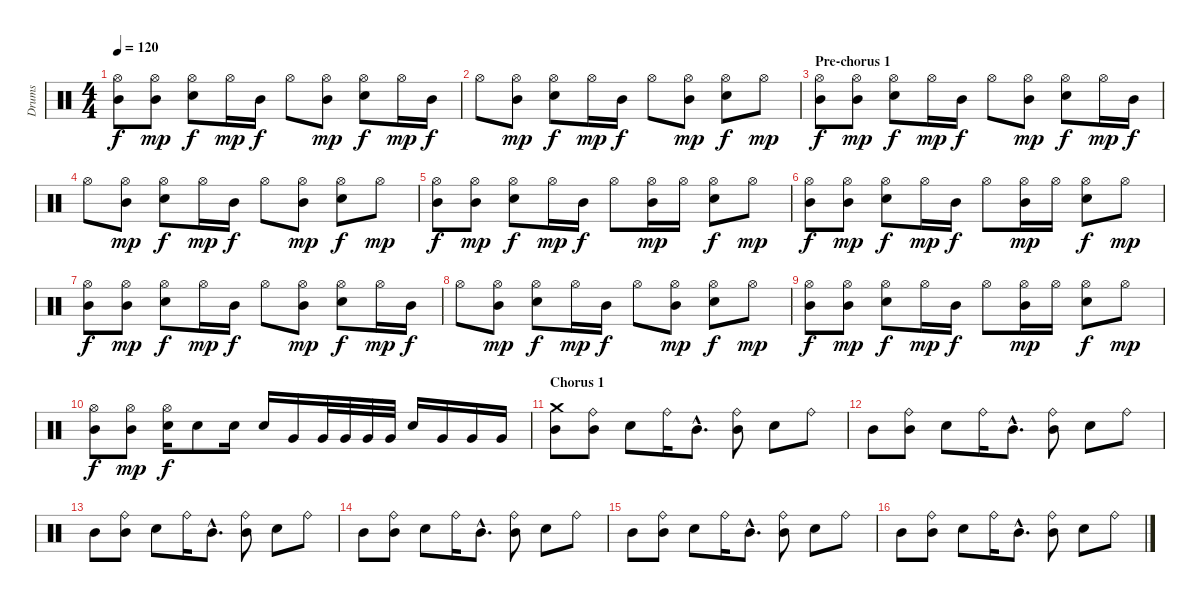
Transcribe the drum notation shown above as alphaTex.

\track ("Drums" "Drums") {instrument percussion}
\staff {score}
\articulation defaults
\ts (4 4)
\tempo 120
\clef neutral
\ks c
("Hi-Hat (open)" "Mid Tom (hit)").8{dy f} ("Hi-Hat (open)" "Mid Tom (hit)").8{dy mp} ("Hi-Hat (open)" "Electric Snare (hit)").8{dy f} "Hi-Hat (open)".16{dy mp} "Mid Tom (hit)".16{dy f} "Hi-Hat (open)".8 ("Hi-Hat (open)" "Mid Tom (hit)").8{dy mp} ("Hi-Hat (open)" "Electric Snare (hit)").8{dy f} "Hi-Hat (open)".16{dy mp} "Mid Tom (hit)".16{dy f} |
"Hi-Hat (open)".8 ("Hi-Hat (open)" "Mid Tom (hit)").8{dy mp} ("Hi-Hat (open)" "Electric Snare (hit)").8{dy f} "Hi-Hat (open)".16{dy mp} "Mid Tom (hit)".16{dy f} "Hi-Hat (open)".8 ("Hi-Hat (open)" "Mid Tom (hit)").8{dy mp} ("Hi-Hat (open)" "Electric Snare (hit)").8{dy f} "Hi-Hat (open)".8{dy mp} |
\section ("" "Pre-chorus 1")
("Hi-Hat (open)" "Mid Tom (hit)").8{dy f} ("Hi-Hat (open)" "Mid Tom (hit)").8{dy mp} ("Hi-Hat (open)" "Electric Snare (hit)").8{dy f} "Hi-Hat (open)".16{dy mp} "Mid Tom (hit)".16{dy f} "Hi-Hat (open)".8 ("Hi-Hat (open)" "Mid Tom (hit)").8{dy mp} ("Hi-Hat (open)" "Electric Snare (hit)").8{dy f} "Hi-Hat (open)".16{dy mp} "Mid Tom (hit)".16{dy f} |
"Hi-Hat (open)".8 ("Hi-Hat (open)" "Mid Tom (hit)").8{dy mp} ("Hi-Hat (open)" "Electric Snare (hit)").8{dy f} "Hi-Hat (open)".16{dy mp} "Mid Tom (hit)".16{dy f} "Hi-Hat (open)".8 ("Hi-Hat (open)" "Mid Tom (hit)").8{dy mp} ("Hi-Hat (open)" "Electric Snare (hit)").8{dy f} "Hi-Hat (open)".8{dy mp} |
("Hi-Hat (open)" "Mid Tom (hit)").8{dy f} ("Hi-Hat (open)" "Mid Tom (hit)").8{dy mp} ("Hi-Hat (open)" "Electric Snare (hit)").8{dy f} "Hi-Hat (open)".16{dy mp} "Mid Tom (hit)".16{dy f} "Hi-Hat (open)".8 ("Hi-Hat (open)" "Mid Tom (hit)").16{dy mp} "Hi-Hat (open)".16 ("Hi-Hat (open)" "Electric Snare (hit)").8{dy f} "Hi-Hat (open)".8{dy mp} |
("Hi-Hat (open)" "Mid Tom (hit)").8{dy f} ("Hi-Hat (open)" "Mid Tom (hit)").8{dy mp} ("Hi-Hat (open)" "Electric Snare (hit)").8{dy f} "Hi-Hat (open)".16{dy mp} "Mid Tom (hit)".16{dy f} "Hi-Hat (open)".8 ("Hi-Hat (open)" "Mid Tom (hit)").16{dy mp} "Hi-Hat (open)".16 ("Hi-Hat (open)" "Electric Snare (hit)").8{dy f} "Hi-Hat (open)".8{dy mp} |
("Hi-Hat (open)" "Mid Tom (hit)").8{dy f} ("Hi-Hat (open)" "Mid Tom (hit)").8{dy mp} ("Hi-Hat (open)" "Electric Snare (hit)").8{dy f} "Hi-Hat (open)".16{dy mp} "Mid Tom (hit)".16{dy f} "Hi-Hat (open)".8 ("Hi-Hat (open)" "Mid Tom (hit)").8{dy mp} ("Hi-Hat (open)" "Electric Snare (hit)").8{dy f} "Hi-Hat (open)".16{dy mp} "Mid Tom (hit)".16{dy f} |
"Hi-Hat (open)".8 ("Hi-Hat (open)" "Mid Tom (hit)").8{dy mp} ("Hi-Hat (open)" "Electric Snare (hit)").8{dy f} "Hi-Hat (open)".16{dy mp} "Mid Tom (hit)".16{dy f} "Hi-Hat (open)".8 ("Hi-Hat (open)" "Mid Tom (hit)").8{dy mp} ("Hi-Hat (open)" "Electric Snare (hit)").8{dy f} "Hi-Hat (open)".8{dy mp} |
("Hi-Hat (open)" "Mid Tom (hit)").8{dy f} ("Hi-Hat (open)" "Mid Tom (hit)").8{dy mp} ("Hi-Hat (open)" "Electric Snare (hit)").8{dy f} "Hi-Hat (open)".16{dy mp} "Mid Tom (hit)".16{dy f} "Hi-Hat (open)".8 ("Hi-Hat (open)" "Mid Tom (hit)").16{dy mp} "Hi-Hat (open)".16 ("Hi-Hat (open)" "Electric Snare (hit)").8{dy f} "Hi-Hat (open)".8{dy mp} |
("Hi-Hat (open)" "Mid Tom (hit)").8{dy f} ("Hi-Hat (open)" "Mid Tom (hit)").8{dy mp} ("Hi-Hat (open)" "Electric Snare (hit)").16{dy f} "Electric Snare (hit)".8 "Electric Snare (hit)".16 "Electric Snare (hit)".16 "Very Low Tom (hit)".16 "Very Low Tom (hit)".32 "Very Low Tom (hit)".32 "Very Low Tom (hit)".32 "Very Low Tom (hit)".32 "Electric Snare (hit)".16 "Very Low Tom (hit)".16 "Very Low Tom (hit)".16 "Very Low Tom (hit)".16 |
\section ("" "Chorus 1")
("Crash medium (hit)" "Mid Tom (hit)").8 ("Ride (bell)" "Mid Tom (hit)").8 "Electric Snare (hit)".8 "Ride (bell)".16 "Mid Tom (hit)"{hac}.8{d} ("Ride (bell)" "Mid Tom (hit)").8 "Electric Snare (hit)".8 "Ride (bell)".8 |
"Mid Tom (hit)".8 ("Ride (bell)" "Mid Tom (hit)").8 "Electric Snare (hit)".8 "Ride (bell)".16 "Mid Tom (hit)"{hac}.8{d} ("Ride (bell)" "Mid Tom (hit)").8 "Electric Snare (hit)".8 "Ride (bell)".8 |
"Mid Tom (hit)".8 ("Ride (bell)" "Mid Tom (hit)").8 "Electric Snare (hit)".8 "Ride (bell)".16 "Mid Tom (hit)"{hac}.8{d} ("Ride (bell)" "Mid Tom (hit)").8 "Electric Snare (hit)".8 "Ride (bell)".8 |
"Mid Tom (hit)".8 ("Ride (bell)" "Mid Tom (hit)").8 "Electric Snare (hit)".8 "Ride (bell)".16 "Mid Tom (hit)"{hac}.8{d} ("Ride (bell)" "Mid Tom (hit)").8 "Electric Snare (hit)".8 "Ride (bell)".8 |
"Mid Tom (hit)".8 ("Ride (bell)" "Mid Tom (hit)").8 "Electric Snare (hit)".8 "Ride (bell)".16 "Mid Tom (hit)"{hac}.8{d} ("Ride (bell)" "Mid Tom (hit)").8 "Electric Snare (hit)".8 "Ride (bell)".8 |
"Mid Tom (hit)".8 ("Ride (bell)" "Mid Tom (hit)").8 "Electric Snare (hit)".8 "Ride (bell)".16 "Mid Tom (hit)"{hac}.8{d} ("Ride (bell)" "Mid Tom (hit)").8 "Electric Snare (hit)".8 "Ride (bell)".8
